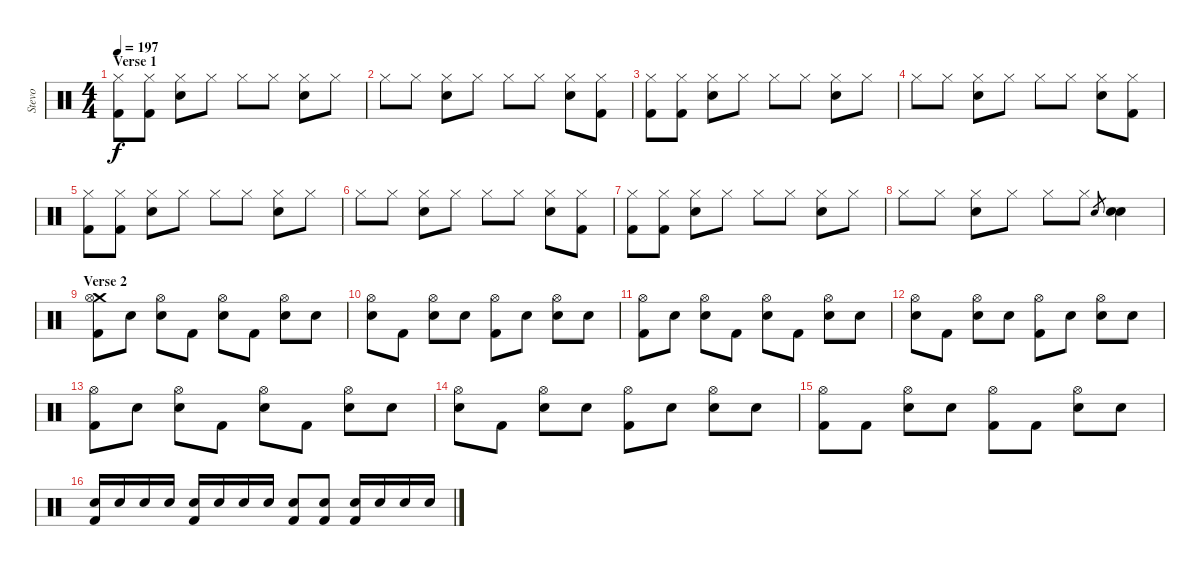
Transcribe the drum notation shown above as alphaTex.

\track ("Stevo" "Stevo") {instrument percussion}
\staff {score}
\articulation defaults
\ts (4 4)
\section ("" "Verse 1")
\tempo 197
\clef neutral
\ks c
("Hi-Hat (closed)" "Kick (hit) 2").8{dy f} ("Hi-Hat (closed)" "Kick (hit) 2").8 ("Hi-Hat (closed)" "Electric Snare (hit)").8 "Hi-Hat (closed)".8 "Hi-Hat (closed)".8 "Hi-Hat (closed)".8 ("Hi-Hat (closed)" "Electric Snare (hit)").8 "Hi-Hat (closed)".8 |
"Hi-Hat (closed)".8 "Hi-Hat (closed)".8 ("Hi-Hat (closed)" "Electric Snare (hit)").8 "Hi-Hat (closed)".8 "Hi-Hat (closed)".8 "Hi-Hat (closed)".8 ("Hi-Hat (closed)" "Electric Snare (hit)").8 ("Hi-Hat (closed)" "Kick (hit) 2").8 |
("Hi-Hat (closed)" "Kick (hit) 2").8 ("Hi-Hat (closed)" "Kick (hit) 2").8 ("Hi-Hat (closed)" "Electric Snare (hit)").8 "Hi-Hat (closed)".8 "Hi-Hat (closed)".8 "Hi-Hat (closed)".8 ("Hi-Hat (closed)" "Electric Snare (hit)").8 "Hi-Hat (closed)".8 |
"Hi-Hat (closed)".8 "Hi-Hat (closed)".8 ("Hi-Hat (closed)" "Electric Snare (hit)").8 "Hi-Hat (closed)".8 "Hi-Hat (closed)".8 "Hi-Hat (closed)".8 ("Hi-Hat (closed)" "Electric Snare (hit)").8 ("Hi-Hat (closed)" "Kick (hit) 2").8 |
("Hi-Hat (closed)" "Kick (hit) 2").8 ("Hi-Hat (closed)" "Kick (hit) 2").8 ("Hi-Hat (closed)" "Electric Snare (hit)").8 "Hi-Hat (closed)".8 "Hi-Hat (closed)".8 "Hi-Hat (closed)".8 ("Hi-Hat (closed)" "Electric Snare (hit)").8 "Hi-Hat (closed)".8 |
"Hi-Hat (closed)".8 "Hi-Hat (closed)".8 ("Hi-Hat (closed)" "Electric Snare (hit)").8 "Hi-Hat (closed)".8 "Hi-Hat (closed)".8 "Hi-Hat (closed)".8 ("Hi-Hat (closed)" "Electric Snare (hit)").8 ("Hi-Hat (closed)" "Kick (hit) 2").8 |
("Hi-Hat (closed)" "Kick (hit) 2").8 ("Hi-Hat (closed)" "Kick (hit) 2").8 ("Hi-Hat (closed)" "Electric Snare (hit)").8 "Hi-Hat (closed)".8 "Hi-Hat (closed)".8 "Hi-Hat (closed)".8 ("Hi-Hat (closed)" "Electric Snare (hit)").8 "Hi-Hat (closed)".8 |
"Hi-Hat (closed)".8 "Hi-Hat (closed)".8 ("Hi-Hat (closed)" "Electric Snare (hit)").8 "Hi-Hat (closed)".8 "Hi-Hat (closed)".8 "Hi-Hat (closed)".8 "Electric Snare (hit)".8{gr} ("Electric Snare (hit)" "Electric Snare (hit)").4 |
\section ("" "Verse 2")
("Crash medium (hit)" "Hi-Hat (open)" "Kick (hit) 2").8 "Snare (hit)".8 ("Hi-Hat (open)" "Electric Snare (hit)").8 "Kick (hit) 2".8 ("Hi-Hat (open)" "Snare (hit)").8 "Kick (hit) 2".8 ("Hi-Hat (open)" "Electric Snare (hit)").8 "Snare (hit)".8 |
("Hi-Hat (open)" "Snare (hit)").8 "Kick (hit) 2".8 ("Hi-Hat (open)" "Electric Snare (hit)").8 "Snare (hit)".8 ("Hi-Hat (open)" "Kick (hit) 2").8 "Snare (hit)".8 ("Hi-Hat (open)" "Electric Snare (hit)").8 "Snare (hit)".8 |
("Hi-Hat (open)" "Kick (hit) 2").8 "Snare (hit)".8 ("Hi-Hat (open)" "Electric Snare (hit)").8 "Kick (hit) 2".8 ("Hi-Hat (open)" "Snare (hit)").8 "Kick (hit) 2".8 ("Hi-Hat (open)" "Electric Snare (hit)").8 "Snare (hit)".8 |
("Hi-Hat (open)" "Snare (hit)").8 "Kick (hit) 2".8 ("Hi-Hat (open)" "Electric Snare (hit)").8 "Snare (hit)".8 ("Hi-Hat (open)" "Kick (hit) 2").8 "Snare (hit)".8 ("Hi-Hat (open)" "Electric Snare (hit)").8 "Snare (hit)".8 |
("Hi-Hat (open)" "Kick (hit) 2").8 "Snare (hit)".8 ("Hi-Hat (open)" "Electric Snare (hit)").8 "Kick (hit) 2".8 ("Hi-Hat (open)" "Snare (hit)").8 "Kick (hit) 2".8 ("Hi-Hat (open)" "Electric Snare (hit)").8 "Snare (hit)".8 |
("Hi-Hat (open)" "Snare (hit)").8 "Kick (hit) 2".8 ("Hi-Hat (open)" "Electric Snare (hit)").8 "Snare (hit)".8 ("Hi-Hat (open)" "Kick (hit) 2").8 "Snare (hit)".8 ("Hi-Hat (open)" "Electric Snare (hit)").8 "Snare (hit)".8 |
("Hi-Hat (open)" "Kick (hit) 2").8 "Kick (hit) 2".8 ("Hi-Hat (open)" "Electric Snare (hit)").8 "Snare (hit)".8 ("Hi-Hat (open)" "Kick (hit) 2").8 "Kick (hit) 2".8 ("Hi-Hat (open)" "Electric Snare (hit)").8 "Snare (hit)".8 |
("Electric Snare (hit)" "Kick (hit) 2").16 "Electric Snare (hit)".16 "Electric Snare (hit)".16 "Electric Snare (hit)".16 ("Electric Snare (hit)" "Kick (hit) 2").16 "Electric Snare (hit)".16 "Electric Snare (hit)".16 "Electric Snare (hit)".16 ("Electric Snare (hit)" "Kick (hit) 2").8 ("Electric Snare (hit)" "Kick (hit) 2").8 ("Electric Snare (hit)" "Kick (hit) 2").16 "Electric Snare (hit)".16 "Electric Snare (hit)".16 "Electric Snare (hit)".16
